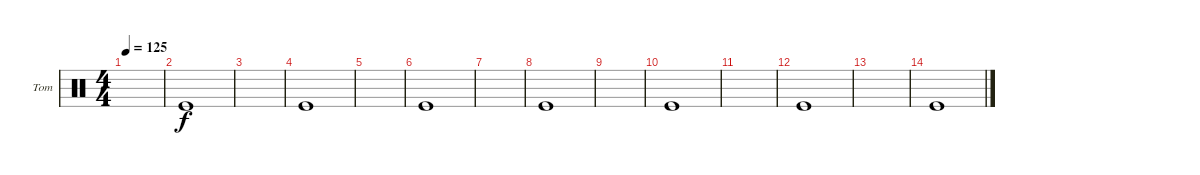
\defaultSystemsLayout 4
\bracketExtendMode groupsimilarinstruments
\firstSystemTrackNameOrientation horizontal
\otherSystemsTrackNameOrientation horizontal
\track ("Melodic Tom" "Tom") {instrument percussion}
\staff {score}
\articulation defaults
\ts (4 4)
\tempo 125
\clef neutral
\scale
0.333333
\ks c
|
\scale
0.333333 "Kick (hit)".1 |
\scale
0.333333 |
\scale
0.333333 "Kick (hit)".1 |
\scale
0.333333 |
\scale
0.333333 "Kick (hit)".1 |
\scale
0.333333 |
\scale
0.333333 "Kick (hit)".1 |
\scale
0.333333 |
\scale
0.333333 "Kick (hit)".1 |
\scale
0.333333 |
\scale
0.333333 "Kick (hit)".1 |
\scale
0.333333 |
\scale
0.333333 "Kick (hit)".1 |
\scale
0.333333 |
\scale
0.333333
